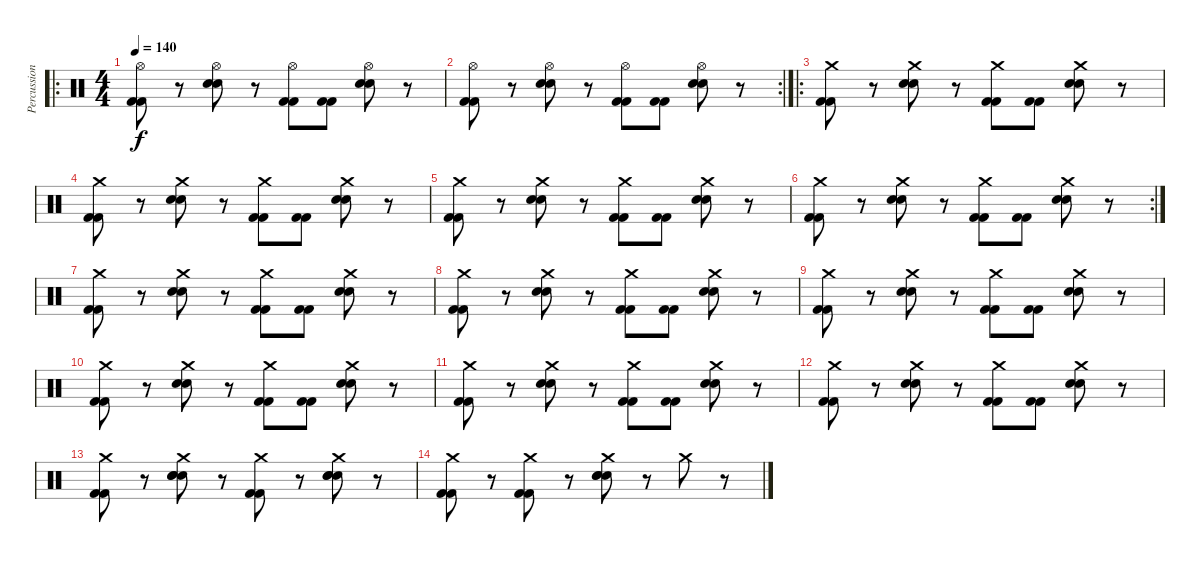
\track ("Percussions" "Percussion") {instrument percussion}
\staff {score}
\articulation defaults
\ro
\ts (4 4)
\tempo 140
\clef neutral
\ks c
("Hi-Hat (open)" "Kick (hit) 2" "Kick (hit) 2").8{dy f} r.8 ("Hi-Hat (open)" "Snare (hit) 2" "Snare (hit) 2").8 r.8 ("Hi-Hat (open)" "Kick (hit) 2" "Kick (hit) 2").8 ("Kick (hit) 2" "Kick (hit) 2").8 ("Hi-Hat (open)" "Snare (hit) 2" "Snare (hit) 2").8 r.8 |
\rc 2
("Hi-Hat (open)" "Kick (hit) 2" "Kick (hit) 2").8 r.8 ("Hi-Hat (open)" "Snare (hit) 2" "Snare (hit) 2").8 r.8 ("Hi-Hat (open)" "Kick (hit) 2" "Kick (hit) 2").8 ("Kick (hit) 2" "Kick (hit) 2").8 ("Hi-Hat (open)" "Snare (hit) 2" "Snare (hit) 2").8 r.8 |
\ro
("Crash medium (hit)" "Kick (hit) 2" "Kick (hit) 2").8 r.8 ("Crash medium (hit)" "Snare (hit) 2" "Snare (hit) 2").8 r.8 ("Crash medium (hit)" "Kick (hit) 2" "Kick (hit) 2").8 ("Kick (hit) 2" "Kick (hit) 2").8 ("Crash medium (hit)" "Snare (hit) 2" "Snare (hit) 2").8 r.8 |
("Crash medium (hit)" "Kick (hit) 2" "Kick (hit) 2").8 r.8 ("Crash medium (hit)" "Snare (hit) 2" "Snare (hit) 2").8 r.8 ("Crash medium (hit)" "Kick (hit) 2" "Kick (hit) 2").8 ("Kick (hit) 2" "Kick (hit) 2").8 ("Crash medium (hit)" "Snare (hit) 2" "Snare (hit) 2").8 r.8 |
("Crash medium (hit)" "Kick (hit) 2" "Kick (hit) 2").8 r.8 ("Crash medium (hit)" "Snare (hit) 2" "Snare (hit) 2").8 r.8 ("Crash medium (hit)" "Kick (hit) 2" "Kick (hit) 2").8 ("Kick (hit) 2" "Kick (hit) 2").8 ("Crash medium (hit)" "Snare (hit) 2" "Snare (hit) 2").8 r.8 |
\rc 2
("Crash medium (hit)" "Kick (hit) 2" "Kick (hit) 2").8 r.8 ("Crash medium (hit)" "Snare (hit) 2" "Snare (hit) 2").8 r.8 ("Crash medium (hit)" "Kick (hit) 2" "Kick (hit) 2").8 ("Kick (hit) 2" "Kick (hit) 2").8 ("Crash medium (hit)" "Snare (hit) 2" "Snare (hit) 2").8 r.8 |
("Crash medium (hit)" "Kick (hit) 2" "Kick (hit) 2").8 r.8 ("Crash medium (hit)" "Snare (hit) 2" "Snare (hit) 2").8 r.8 ("Crash medium (hit)" "Kick (hit) 2" "Kick (hit) 2").8 ("Kick (hit) 2" "Kick (hit) 2").8 ("Crash medium (hit)" "Snare (hit) 2" "Snare (hit) 2").8 r.8 |
("Crash medium (hit)" "Kick (hit) 2" "Kick (hit) 2").8 r.8 ("Crash medium (hit)" "Snare (hit) 2" "Snare (hit) 2").8 r.8 ("Crash medium (hit)" "Kick (hit) 2" "Kick (hit) 2").8 ("Kick (hit) 2" "Kick (hit) 2").8 ("Crash medium (hit)" "Snare (hit) 2" "Snare (hit) 2").8 r.8 |
("Crash medium (hit)" "Kick (hit) 2" "Kick (hit) 2").8 r.8 ("Crash medium (hit)" "Snare (hit) 2" "Snare (hit) 2").8 r.8 ("Crash medium (hit)" "Kick (hit) 2" "Kick (hit) 2").8 ("Kick (hit) 2" "Kick (hit) 2").8 ("Crash medium (hit)" "Snare (hit) 2" "Snare (hit) 2").8 r.8 |
("Crash medium (hit)" "Kick (hit) 2" "Kick (hit) 2").8 r.8 ("Crash medium (hit)" "Snare (hit) 2" "Snare (hit) 2").8 r.8 ("Crash medium (hit)" "Kick (hit) 2" "Kick (hit) 2").8 ("Kick (hit) 2" "Kick (hit) 2").8 ("Crash medium (hit)" "Snare (hit) 2" "Snare (hit) 2").8 r.8 |
("Crash medium (hit)" "Kick (hit) 2" "Kick (hit) 2").8 r.8 ("Crash medium (hit)" "Snare (hit) 2" "Snare (hit) 2").8 r.8 ("Crash medium (hit)" "Kick (hit) 2" "Kick (hit) 2").8 ("Kick (hit) 2" "Kick (hit) 2").8 ("Crash medium (hit)" "Snare (hit) 2" "Snare (hit) 2").8 r.8 |
("Crash medium (hit)" "Kick (hit) 2" "Kick (hit) 2").8 r.8 ("Crash medium (hit)" "Snare (hit) 2" "Snare (hit) 2").8 r.8 ("Crash medium (hit)" "Kick (hit) 2" "Kick (hit) 2").8 ("Kick (hit) 2" "Kick (hit) 2").8 ("Crash medium (hit)" "Snare (hit) 2" "Snare (hit) 2").8 r.8 |
("Crash medium (hit)" "Kick (hit) 2" "Kick (hit) 2").8 r.8 ("Crash medium (hit)" "Snare (hit) 2" "Snare (hit) 2" "Snare (hit) 2").8 r.8 ("Crash medium (hit)" "Kick (hit) 2" "Kick (hit) 2").8 r.8 ("Crash medium (hit)" "Snare (hit) 2" "Snare (hit) 2" "Snare (hit) 2").8 r.8 |
("Crash medium (hit)" "Kick (hit) 2" "Kick (hit) 2").8 r.8 ("Crash medium (hit)" "Kick (hit) 2" "Kick (hit) 2").8 r.8 ("Crash medium (hit)" "Snare (hit) 2" "Snare (hit) 2" "Snare (hit) 2").8 r.8 "Crash medium (hit)".8 r.8
